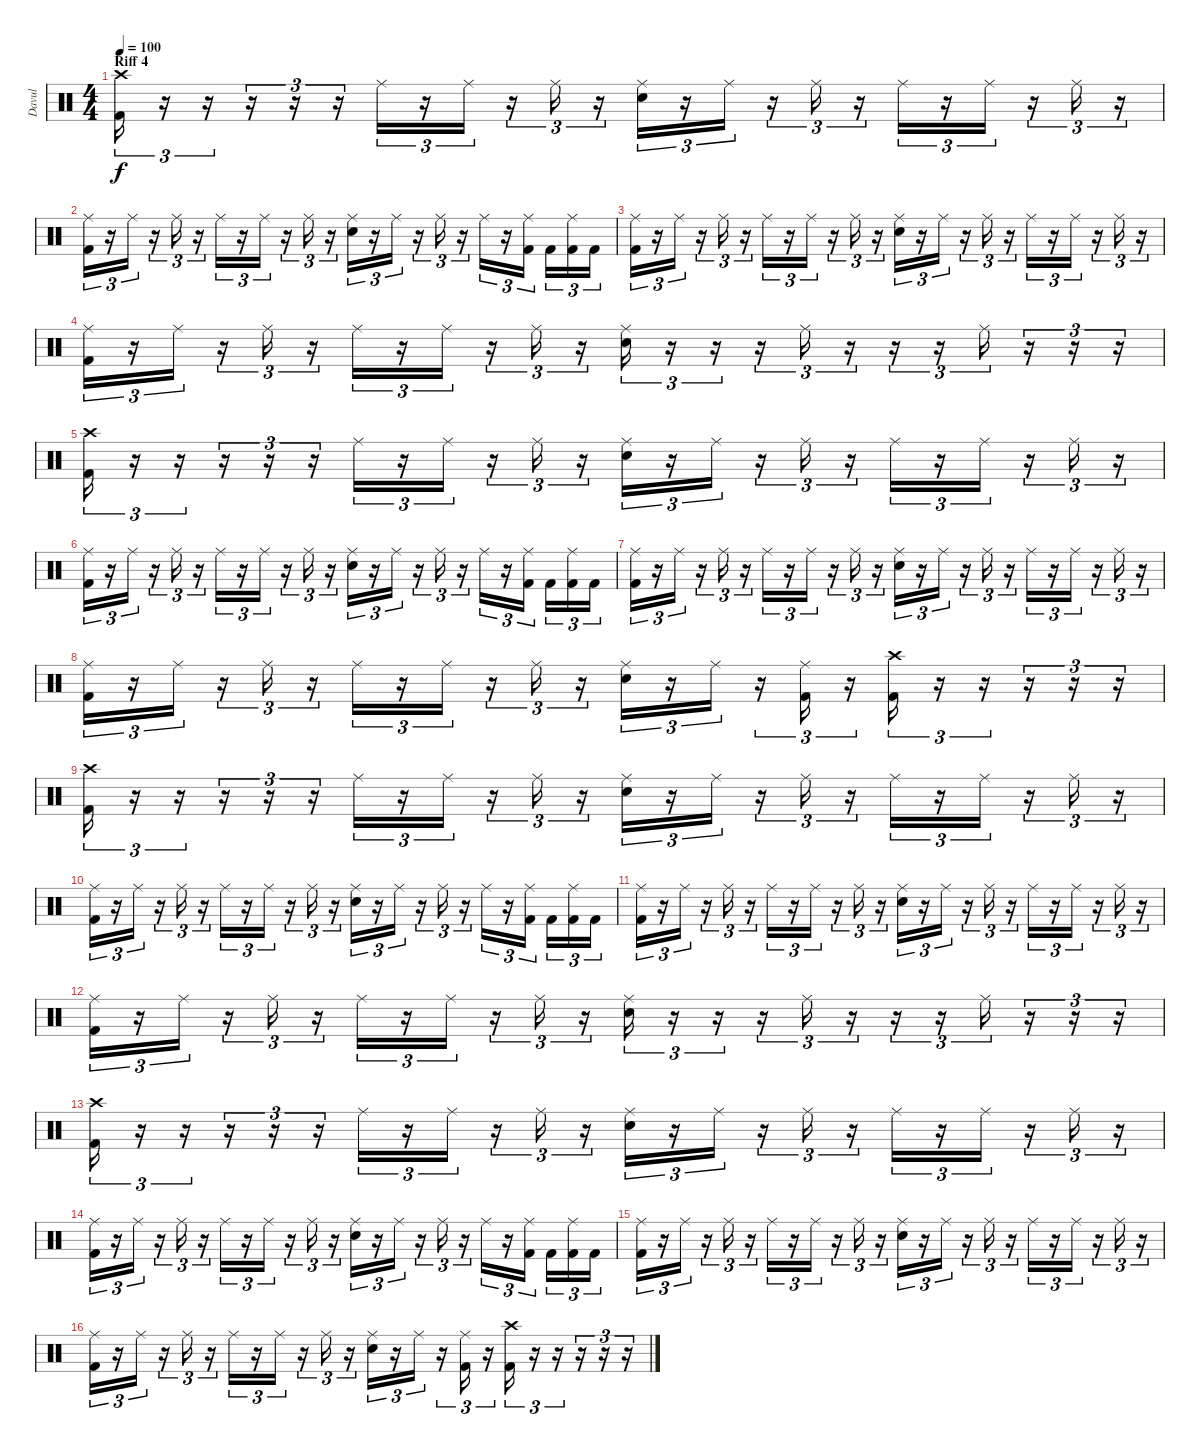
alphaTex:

\track ("Davul" "Davul") {instrument percussion}
\staff {score}
\articulation defaults
\ts (4 4)
\section ("" "Riff 4")
\tempo 100
\clef neutral
\ks c
("Crash high (hit)" "Kick (hit) 2").16{tu (3 2) dy f} r.16{tu (3 2)} r.16{tu (3 2)} r.16{tu (3 2)} r.16{tu (3 2)} r.16{tu (3 2)} "Ride (middle)".16{tu (3 2)} r.16{tu (3 2)} "Ride (middle)".16{tu (3 2)} r.16{tu (3 2)} "Ride (middle)".16{tu (3 2)} r.16{tu (3 2)} ("Ride (middle)" "Electric Snare (hit)").16{tu (3 2)} r.16{tu (3 2)} "Ride (middle)".16{tu (3 2)} r.16{tu (3 2)} "Ride (middle)".16{tu (3 2)} r.16{tu (3 2)} "Ride (middle)".16{tu (3 2)} r.16{tu (3 2)} "Ride (middle)".16{tu (3 2)} r.16{tu (3 2)} "Ride (middle)".16{tu (3 2)} r.16{tu (3 2)} |
("Ride (middle)" "Kick (hit) 2").16{tu (3 2)} r.16{tu (3 2)} "Ride (middle)".16{tu (3 2)} r.16{tu (3 2)} "Ride (middle)".16{tu (3 2)} r.16{tu (3 2)} "Ride (middle)".16{tu (3 2)} r.16{tu (3 2)} "Ride (middle)".16{tu (3 2)} r.16{tu (3 2)} "Ride (middle)".16{tu (3 2)} r.16{tu (3 2)} ("Ride (middle)" "Electric Snare (hit)").16{tu (3 2)} r.16{tu (3 2)} "Ride (middle)".16{tu (3 2)} r.16{tu (3 2)} "Ride (middle)".16{tu (3 2)} r.16{tu (3 2)} "Ride (middle)".16{tu (3 2)} r.16{tu (3 2)} ("Ride (middle)" "Kick (hit) 2").16{tu (3 2)} "Kick (hit) 2".16{tu (3 2)} ("Ride (middle)" "Kick (hit) 2").16{tu (3 2)} "Kick (hit) 2".16{tu (3 2)} |
("Ride (middle)" "Kick (hit) 2").16{tu (3 2)} r.16{tu (3 2)} "Ride (middle)".16{tu (3 2)} r.16{tu (3 2)} "Ride (middle)".16{tu (3 2)} r.16{tu (3 2)} "Ride (middle)".16{tu (3 2)} r.16{tu (3 2)} "Ride (middle)".16{tu (3 2)} r.16{tu (3 2)} "Ride (middle)".16{tu (3 2)} r.16{tu (3 2)} ("Ride (middle)" "Electric Snare (hit)").16{tu (3 2)} r.16{tu (3 2)} "Ride (middle)".16{tu (3 2)} r.16{tu (3 2)} "Ride (middle)".16{tu (3 2)} r.16{tu (3 2)} "Ride (middle)".16{tu (3 2)} r.16{tu (3 2)} "Ride (middle)".16{tu (3 2)} r.16{tu (3 2)} "Ride (middle)".16{tu (3 2)} r.16{tu (3 2)} |
("Ride (middle)" "Kick (hit) 2").16{tu (3 2)} r.16{tu (3 2)} "Ride (middle)".16{tu (3 2)} r.16{tu (3 2)} "Ride (middle)".16{tu (3 2)} r.16{tu (3 2)} "Ride (middle)".16{tu (3 2)} r.16{tu (3 2)} "Ride (middle)".16{tu (3 2)} r.16{tu (3 2)} "Ride (middle)".16{tu (3 2)} r.16{tu (3 2)} ("Ride (middle)" "Electric Snare (hit)").16{tu (3 2)} r.16{tu (3 2)} r.16{tu (3 2)} r.16{tu (3 2)} "Ride (middle)".16{tu (3 2)} r.16{tu (3 2)} r.16{tu (3 2)} r.16{tu (3 2)} "Ride (middle)".16{tu (3 2)} r.16{tu (3 2)} r.16{tu (3 2)} r.16{tu (3 2)} |
("Crash high (hit)" "Kick (hit) 2").16{tu (3 2)} r.16{tu (3 2)} r.16{tu (3 2)} r.16{tu (3 2)} r.16{tu (3 2)} r.16{tu (3 2)} "Ride (middle)".16{tu (3 2)} r.16{tu (3 2)} "Ride (middle)".16{tu (3 2)} r.16{tu (3 2)} "Ride (middle)".16{tu (3 2)} r.16{tu (3 2)} ("Ride (middle)" "Electric Snare (hit)").16{tu (3 2)} r.16{tu (3 2)} "Ride (middle)".16{tu (3 2)} r.16{tu (3 2)} "Ride (middle)".16{tu (3 2)} r.16{tu (3 2)} "Ride (middle)".16{tu (3 2)} r.16{tu (3 2)} "Ride (middle)".16{tu (3 2)} r.16{tu (3 2)} "Ride (middle)".16{tu (3 2)} r.16{tu (3 2)} |
("Ride (middle)" "Kick (hit) 2").16{tu (3 2)} r.16{tu (3 2)} "Ride (middle)".16{tu (3 2)} r.16{tu (3 2)} "Ride (middle)".16{tu (3 2)} r.16{tu (3 2)} "Ride (middle)".16{tu (3 2)} r.16{tu (3 2)} "Ride (middle)".16{tu (3 2)} r.16{tu (3 2)} "Ride (middle)".16{tu (3 2)} r.16{tu (3 2)} ("Ride (middle)" "Electric Snare (hit)").16{tu (3 2)} r.16{tu (3 2)} "Ride (middle)".16{tu (3 2)} r.16{tu (3 2)} "Ride (middle)".16{tu (3 2)} r.16{tu (3 2)} "Ride (middle)".16{tu (3 2)} r.16{tu (3 2)} ("Ride (middle)" "Kick (hit) 2").16{tu (3 2)} "Kick (hit) 2".16{tu (3 2)} ("Ride (middle)" "Kick (hit) 2").16{tu (3 2)} "Kick (hit) 2".16{tu (3 2)} |
("Ride (middle)" "Kick (hit) 2").16{tu (3 2)} r.16{tu (3 2)} "Ride (middle)".16{tu (3 2)} r.16{tu (3 2)} "Ride (middle)".16{tu (3 2)} r.16{tu (3 2)} "Ride (middle)".16{tu (3 2)} r.16{tu (3 2)} "Ride (middle)".16{tu (3 2)} r.16{tu (3 2)} "Ride (middle)".16{tu (3 2)} r.16{tu (3 2)} ("Ride (middle)" "Electric Snare (hit)").16{tu (3 2)} r.16{tu (3 2)} "Ride (middle)".16{tu (3 2)} r.16{tu (3 2)} "Ride (middle)".16{tu (3 2)} r.16{tu (3 2)} "Ride (middle)".16{tu (3 2)} r.16{tu (3 2)} "Ride (middle)".16{tu (3 2)} r.16{tu (3 2)} "Ride (middle)".16{tu (3 2)} r.16{tu (3 2)} |
("Ride (middle)" "Kick (hit) 2").16{tu (3 2)} r.16{tu (3 2)} "Ride (middle)".16{tu (3 2)} r.16{tu (3 2)} "Ride (middle)".16{tu (3 2)} r.16{tu (3 2)} "Ride (middle)".16{tu (3 2)} r.16{tu (3 2)} "Ride (middle)".16{tu (3 2)} r.16{tu (3 2)} "Ride (middle)".16{tu (3 2)} r.16{tu (3 2)} ("Ride (middle)" "Electric Snare (hit)").16{tu (3 2)} r.16{tu (3 2)} "Ride (middle)".16{tu (3 2)} r.16{tu (3 2)} ("Ride (middle)" "Kick (hit) 2").16{tu (3 2)} r.16{tu (3 2)} ("Crash high (hit)" "Kick (hit) 2").16{tu (3 2)} r.16{tu (3 2)} r.16{tu (3 2)} r.16{tu (3 2)} r.16{tu (3 2)} r.16{tu (3 2)} |
("Crash high (hit)" "Kick (hit) 2").16{tu (3 2)} r.16{tu (3 2)} r.16{tu (3 2)} r.16{tu (3 2)} r.16{tu (3 2)} r.16{tu (3 2)} "Ride (middle)".16{tu (3 2)} r.16{tu (3 2)} "Ride (middle)".16{tu (3 2)} r.16{tu (3 2)} "Ride (middle)".16{tu (3 2)} r.16{tu (3 2)} ("Ride (middle)" "Electric Snare (hit)").16{tu (3 2)} r.16{tu (3 2)} "Ride (middle)".16{tu (3 2)} r.16{tu (3 2)} "Ride (middle)".16{tu (3 2)} r.16{tu (3 2)} "Ride (middle)".16{tu (3 2)} r.16{tu (3 2)} "Ride (middle)".16{tu (3 2)} r.16{tu (3 2)} "Ride (middle)".16{tu (3 2)} r.16{tu (3 2)} |
("Ride (middle)" "Kick (hit) 2").16{tu (3 2)} r.16{tu (3 2)} "Ride (middle)".16{tu (3 2)} r.16{tu (3 2)} "Ride (middle)".16{tu (3 2)} r.16{tu (3 2)} "Ride (middle)".16{tu (3 2)} r.16{tu (3 2)} "Ride (middle)".16{tu (3 2)} r.16{tu (3 2)} "Ride (middle)".16{tu (3 2)} r.16{tu (3 2)} ("Ride (middle)" "Electric Snare (hit)").16{tu (3 2)} r.16{tu (3 2)} "Ride (middle)".16{tu (3 2)} r.16{tu (3 2)} "Ride (middle)".16{tu (3 2)} r.16{tu (3 2)} "Ride (middle)".16{tu (3 2)} r.16{tu (3 2)} ("Ride (middle)" "Kick (hit) 2").16{tu (3 2)} "Kick (hit) 2".16{tu (3 2)} ("Ride (middle)" "Kick (hit) 2").16{tu (3 2)} "Kick (hit) 2".16{tu (3 2)} |
("Ride (middle)" "Kick (hit) 2").16{tu (3 2)} r.16{tu (3 2)} "Ride (middle)".16{tu (3 2)} r.16{tu (3 2)} "Ride (middle)".16{tu (3 2)} r.16{tu (3 2)} "Ride (middle)".16{tu (3 2)} r.16{tu (3 2)} "Ride (middle)".16{tu (3 2)} r.16{tu (3 2)} "Ride (middle)".16{tu (3 2)} r.16{tu (3 2)} ("Ride (middle)" "Electric Snare (hit)").16{tu (3 2)} r.16{tu (3 2)} "Ride (middle)".16{tu (3 2)} r.16{tu (3 2)} "Ride (middle)".16{tu (3 2)} r.16{tu (3 2)} "Ride (middle)".16{tu (3 2)} r.16{tu (3 2)} "Ride (middle)".16{tu (3 2)} r.16{tu (3 2)} "Ride (middle)".16{tu (3 2)} r.16{tu (3 2)} |
("Ride (middle)" "Kick (hit) 2").16{tu (3 2)} r.16{tu (3 2)} "Ride (middle)".16{tu (3 2)} r.16{tu (3 2)} "Ride (middle)".16{tu (3 2)} r.16{tu (3 2)} "Ride (middle)".16{tu (3 2)} r.16{tu (3 2)} "Ride (middle)".16{tu (3 2)} r.16{tu (3 2)} "Ride (middle)".16{tu (3 2)} r.16{tu (3 2)} ("Ride (middle)" "Electric Snare (hit)").16{tu (3 2)} r.16{tu (3 2)} r.16{tu (3 2)} r.16{tu (3 2)} "Ride (middle)".16{tu (3 2)} r.16{tu (3 2)} r.16{tu (3 2)} r.16{tu (3 2)} "Ride (middle)".16{tu (3 2)} r.16{tu (3 2)} r.16{tu (3 2)} r.16{tu (3 2)} |
("Crash high (hit)" "Kick (hit) 2").16{tu (3 2)} r.16{tu (3 2)} r.16{tu (3 2)} r.16{tu (3 2)} r.16{tu (3 2)} r.16{tu (3 2)} "Ride (middle)".16{tu (3 2)} r.16{tu (3 2)} "Ride (middle)".16{tu (3 2)} r.16{tu (3 2)} "Ride (middle)".16{tu (3 2)} r.16{tu (3 2)} ("Ride (middle)" "Electric Snare (hit)").16{tu (3 2)} r.16{tu (3 2)} "Ride (middle)".16{tu (3 2)} r.16{tu (3 2)} "Ride (middle)".16{tu (3 2)} r.16{tu (3 2)} "Ride (middle)".16{tu (3 2)} r.16{tu (3 2)} "Ride (middle)".16{tu (3 2)} r.16{tu (3 2)} "Ride (middle)".16{tu (3 2)} r.16{tu (3 2)} |
("Ride (middle)" "Kick (hit) 2").16{tu (3 2)} r.16{tu (3 2)} "Ride (middle)".16{tu (3 2)} r.16{tu (3 2)} "Ride (middle)".16{tu (3 2)} r.16{tu (3 2)} "Ride (middle)".16{tu (3 2)} r.16{tu (3 2)} "Ride (middle)".16{tu (3 2)} r.16{tu (3 2)} "Ride (middle)".16{tu (3 2)} r.16{tu (3 2)} ("Ride (middle)" "Electric Snare (hit)").16{tu (3 2)} r.16{tu (3 2)} "Ride (middle)".16{tu (3 2)} r.16{tu (3 2)} "Ride (middle)".16{tu (3 2)} r.16{tu (3 2)} "Ride (middle)".16{tu (3 2)} r.16{tu (3 2)} ("Ride (middle)" "Kick (hit) 2").16{tu (3 2)} "Kick (hit) 2".16{tu (3 2)} ("Ride (middle)" "Kick (hit) 2").16{tu (3 2)} "Kick (hit) 2".16{tu (3 2)} |
("Ride (middle)" "Kick (hit) 2").16{tu (3 2)} r.16{tu (3 2)} "Ride (middle)".16{tu (3 2)} r.16{tu (3 2)} "Ride (middle)".16{tu (3 2)} r.16{tu (3 2)} "Ride (middle)".16{tu (3 2)} r.16{tu (3 2)} "Ride (middle)".16{tu (3 2)} r.16{tu (3 2)} "Ride (middle)".16{tu (3 2)} r.16{tu (3 2)} ("Ride (middle)" "Electric Snare (hit)").16{tu (3 2)} r.16{tu (3 2)} "Ride (middle)".16{tu (3 2)} r.16{tu (3 2)} "Ride (middle)".16{tu (3 2)} r.16{tu (3 2)} "Ride (middle)".16{tu (3 2)} r.16{tu (3 2)} "Ride (middle)".16{tu (3 2)} r.16{tu (3 2)} "Ride (middle)".16{tu (3 2)} r.16{tu (3 2)} |
("Ride (middle)" "Kick (hit) 2").16{tu (3 2)} r.16{tu (3 2)} "Ride (middle)".16{tu (3 2)} r.16{tu (3 2)} "Ride (middle)".16{tu (3 2)} r.16{tu (3 2)} "Ride (middle)".16{tu (3 2)} r.16{tu (3 2)} "Ride (middle)".16{tu (3 2)} r.16{tu (3 2)} "Ride (middle)".16{tu (3 2)} r.16{tu (3 2)} ("Ride (middle)" "Electric Snare (hit)").16{tu (3 2)} r.16{tu (3 2)} "Ride (middle)".16{tu (3 2)} r.16{tu (3 2)} ("Ride (middle)" "Kick (hit) 2").16{tu (3 2)} r.16{tu (3 2)} ("Crash high (hit)" "Kick (hit) 2").16{tu (3 2)} r.16{tu (3 2)} r.16{tu (3 2)} r.16{tu (3 2)} r.16{tu (3 2)} r.16{tu (3 2)}
